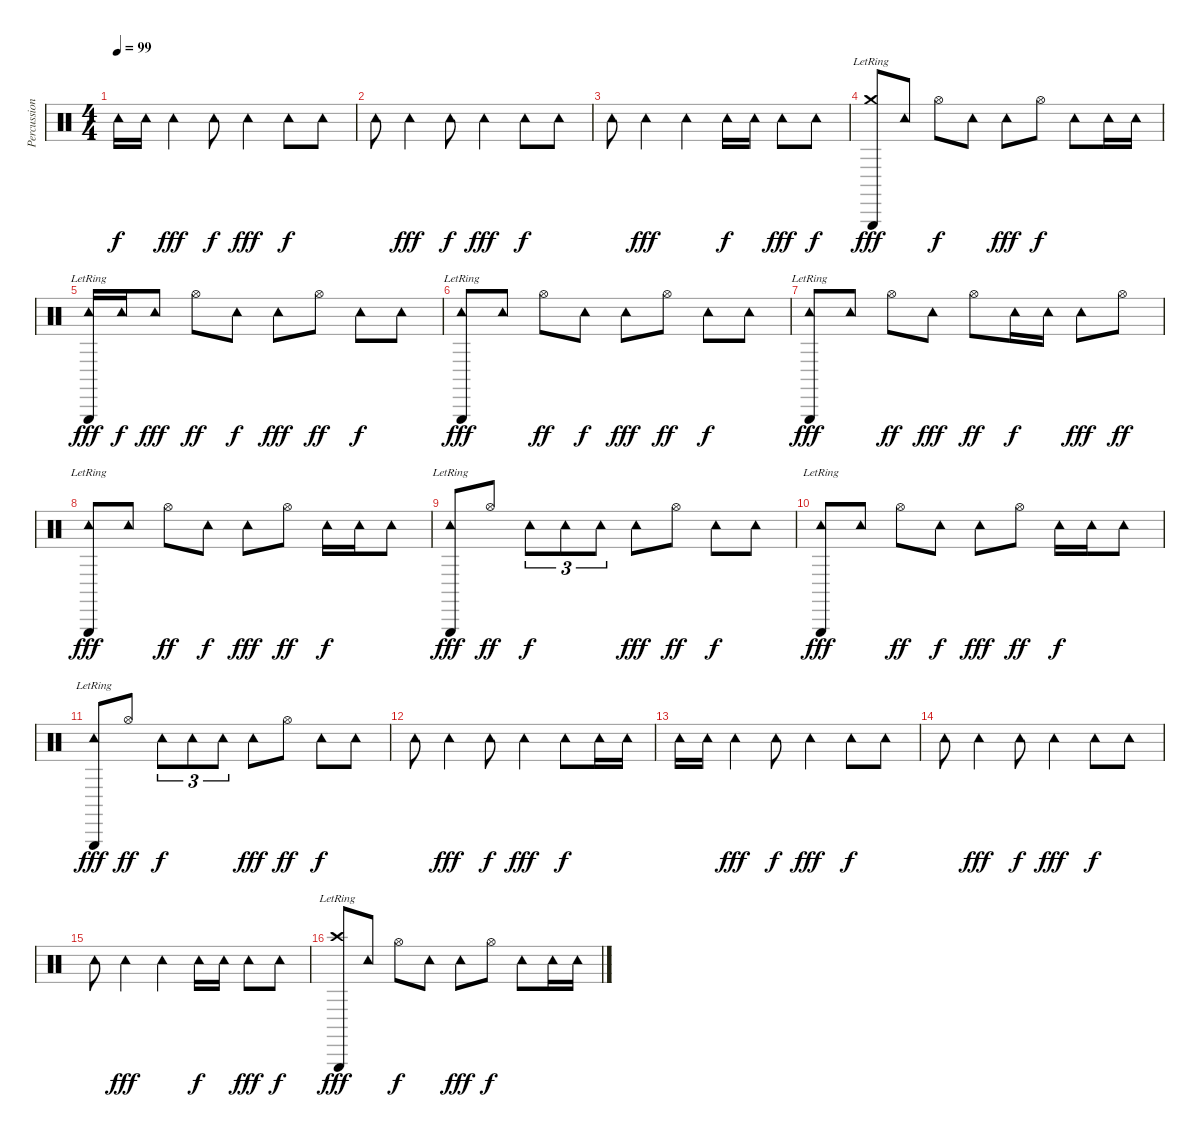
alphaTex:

\track ("Percussion" "Percussion") {instrument percussion}
\staff {score}
\articulation defaults
\ts (4 4)
\tempo 99
\clef neutral
\ks c "Tambourine (hit)".16{dy f} "Tambourine (hit)".16 "Tambourine (hit)".4{dy fff} "Tambourine (hit)".8{dy f} "Tambourine (hit)".4{dy fff} "Tambourine (hit)".8{dy f} "Tambourine (hit)".8
|
"Tambourine (hit)".8 "Tambourine (hit)".4{dy fff} "Tambourine (hit)".8{dy f} "Tambourine (hit)".4{dy fff} "Tambourine (hit)".8{dy f} "Tambourine (hit)".8 |
"Tambourine (hit)".8 "Tambourine (hit)".4{dy fff} "Tambourine (hit)".4 "Tambourine (hit)".16{dy f} "Tambourine (hit)".16 "Tambourine (hit)".8{dy fff} "Tambourine (hit)".8{dy f} |
("Crash medium (hit)" "Triangle (hit)"{lr}).8{dy fff} "Tambourine (hit)".8 "Hi-Hat (open)".8{dy f} "Tambourine (hit)".8 "Tambourine (hit)".8{dy fff} "Hi-Hat (open)".8{dy f} "Tambourine (hit)".8 "Tambourine (hit)".16 "Tambourine (hit)".16 |
("Tambourine (hit)" "Triangle (hit)"{lr}).16{dy fff} "Tambourine (hit)".16{dy f} "Tambourine (hit)".8{dy fff} "Hi-Hat (open)".8{dy ff} "Tambourine (hit)".8{dy f} "Tambourine (hit)".8{dy fff} "Hi-Hat (open)".8{dy ff} "Tambourine (hit)".8{dy f} "Tambourine (hit)".8 |
("Tambourine (hit)" "Triangle (hit)"{lr}).8{dy fff} "Tambourine (hit)".8 "Hi-Hat (open)".8{dy ff} "Tambourine (hit)".8{dy f} "Tambourine (hit)".8{dy fff} "Hi-Hat (open)".8{dy ff} "Tambourine (hit)".8{dy f} "Tambourine (hit)".8 |
("Tambourine (hit)" "Triangle (hit)"{lr}).8{dy fff} "Tambourine (hit)".8 "Hi-Hat (open)".8{dy ff} "Tambourine (hit)".8{dy fff} "Hi-Hat (open)".8{dy ff} "Tambourine (hit)".16{dy f} "Tambourine (hit)".16 "Tambourine (hit)".8{dy fff} "Hi-Hat (open)".8{dy ff} |
("Tambourine (hit)" "Triangle (hit)"{lr}).8{dy fff} "Tambourine (hit)".8 "Hi-Hat (open)".8{dy ff} "Tambourine (hit)".8{dy f} "Tambourine (hit)".8{dy fff} "Hi-Hat (open)".8{dy ff} "Tambourine (hit)".16{dy f} "Tambourine (hit)".16 "Tambourine (hit)".8 |
("Tambourine (hit)" "Triangle (hit)"{lr}).8{dy fff} "Hi-Hat (open)".8{dy ff} "Tambourine (hit)".8{tu (3 2) dy f} "Tambourine (hit)".8{tu (3 2)} "Tambourine (hit)".8{tu (3 2)} "Tambourine (hit)".8{dy fff} "Hi-Hat (open)".8{dy ff} "Tambourine (hit)".8{dy f} "Tambourine (hit)".8 |
("Tambourine (hit)" "Triangle (hit)"{lr}).8{dy fff} "Tambourine (hit)".8 "Hi-Hat (open)".8{dy ff} "Tambourine (hit)".8{dy f} "Tambourine (hit)".8{dy fff} "Hi-Hat (open)".8{dy ff} "Tambourine (hit)".16{dy f} "Tambourine (hit)".16 "Tambourine (hit)".8 |
("Tambourine (hit)" "Triangle (hit)"{lr}).8{dy fff} "Hi-Hat (open)".8{dy ff} "Tambourine (hit)".8{tu (3 2) dy f} "Tambourine (hit)".8{tu (3 2)} "Tambourine (hit)".8{tu (3 2)} "Tambourine (hit)".8{dy fff} "Hi-Hat (open)".8{dy ff} "Tambourine (hit)".8{dy f} "Tambourine (hit)".8 |
"Tambourine (hit)".8 "Tambourine (hit)".4{dy fff} "Tambourine (hit)".8{dy f} "Tambourine (hit)".4{dy fff} "Tambourine (hit)".8{dy f} "Tambourine (hit)".16 "Tambourine (hit)".16 |
"Tambourine (hit)".16 "Tambourine (hit)".16 "Tambourine (hit)".4{dy fff} "Tambourine (hit)".8{dy f} "Tambourine (hit)".4{dy fff} "Tambourine (hit)".8{dy f} "Tambourine (hit)".8 |
"Tambourine (hit)".8 "Tambourine (hit)".4{dy fff} "Tambourine (hit)".8{dy f} "Tambourine (hit)".4{dy fff} "Tambourine (hit)".8{dy f} "Tambourine (hit)".8 |
"Tambourine (hit)".8 "Tambourine (hit)".4{dy fff} "Tambourine (hit)".4 "Tambourine (hit)".16{dy f} "Tambourine (hit)".16 "Tambourine (hit)".8{dy fff} "Tambourine (hit)".8{dy f} |
("Crash high (hit)" "Triangle (hit)"{lr}).8{dy fff} "Tambourine (hit)".8 "Hi-Hat (open)".8{dy f} "Tambourine (hit)".8 "Tambourine (hit)".8{dy fff} "Hi-Hat (open)".8{dy f} "Tambourine (hit)".8 "Tambourine (hit)".16 "Tambourine (hit)".16
